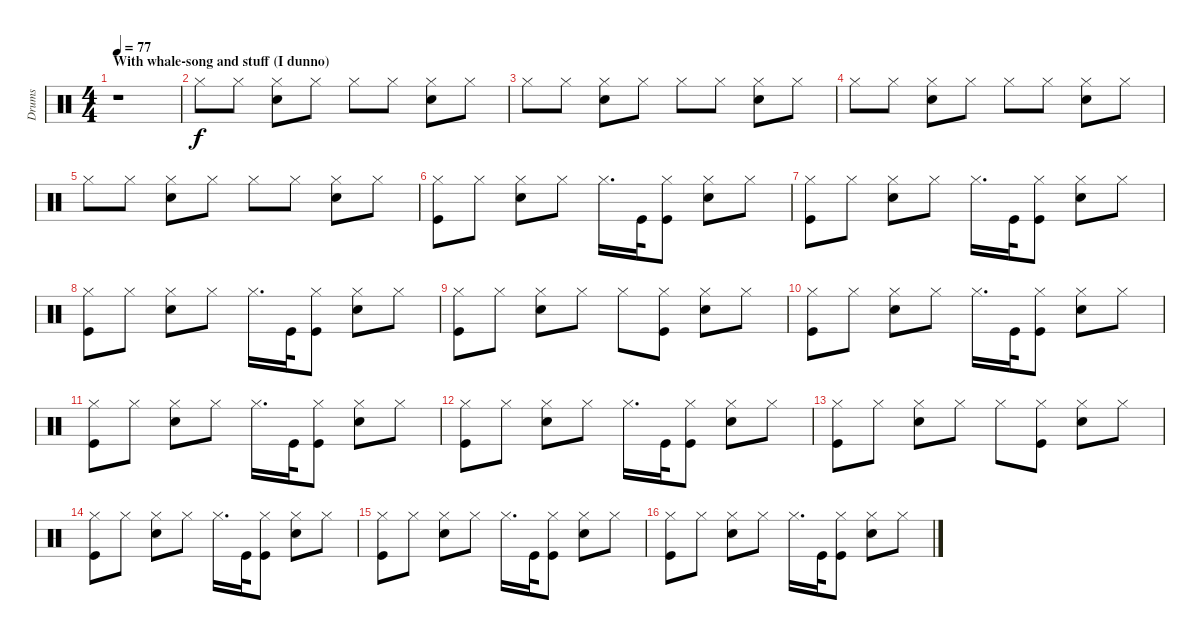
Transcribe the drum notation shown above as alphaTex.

\track ("Drums" "Drums") {instrument percussion}
\staff {score}
\articulation defaults
\ts (4 4)
\section ("" "With whale-song and stuff (I dunno)")
\tempo 77
\clef neutral
\ks c
r.1{dy f} |
"Hi-Hat (closed)".8 "Hi-Hat (closed)".8 ("Hi-Hat (closed)" "Snare (hit) 2").8 "Hi-Hat (closed)".8 "Hi-Hat (closed)".8 "Hi-Hat (closed)".8 ("Hi-Hat (closed)" "Snare (hit) 2").8 "Hi-Hat (closed)".8 |
"Hi-Hat (closed)".8 "Hi-Hat (closed)".8 ("Hi-Hat (closed)" "Snare (hit) 2").8 "Hi-Hat (closed)".8 "Hi-Hat (closed)".8 "Hi-Hat (closed)".8 ("Hi-Hat (closed)" "Snare (hit) 2").8 "Hi-Hat (closed)".8 |
"Hi-Hat (closed)".8 "Hi-Hat (closed)".8 ("Hi-Hat (closed)" "Snare (hit) 2").8 "Hi-Hat (closed)".8 "Hi-Hat (closed)".8 "Hi-Hat (closed)".8 ("Hi-Hat (closed)" "Snare (hit) 2").8 "Hi-Hat (closed)".8 |
"Hi-Hat (closed)".8 "Hi-Hat (closed)".8 ("Hi-Hat (closed)" "Snare (hit) 2").8 "Hi-Hat (closed)".8 "Hi-Hat (closed)".8 "Hi-Hat (closed)".8 ("Hi-Hat (closed)" "Snare (hit) 2").8 "Hi-Hat (closed)".8 |
("Hi-Hat (closed)" "Kick (hit)").8 "Hi-Hat (closed)".8 ("Hi-Hat (closed)" "Snare (hit) 2").8 "Hi-Hat (closed)".8 "Hi-Hat (closed)".16{d} "Kick (hit)".32 ("Hi-Hat (closed)" "Kick (hit)").8 ("Hi-Hat (closed)" "Snare (hit) 2").8 "Hi-Hat (closed)".8 |
("Hi-Hat (closed)" "Kick (hit)").8 "Hi-Hat (closed)".8 ("Hi-Hat (closed)" "Snare (hit) 2").8 "Hi-Hat (closed)".8 "Hi-Hat (closed)".16{d} "Kick (hit)".32 ("Hi-Hat (closed)" "Kick (hit)").8 ("Hi-Hat (closed)" "Snare (hit) 2").8 "Hi-Hat (closed)".8 |
("Hi-Hat (closed)" "Kick (hit)").8 "Hi-Hat (closed)".8 ("Hi-Hat (closed)" "Snare (hit) 2").8 "Hi-Hat (closed)".8 "Hi-Hat (closed)".16{d} "Kick (hit)".32 ("Hi-Hat (closed)" "Kick (hit)").8 ("Hi-Hat (closed)" "Snare (hit) 2").8 "Hi-Hat (closed)".8 |
("Hi-Hat (closed)" "Kick (hit)").8 "Hi-Hat (closed)".8 ("Hi-Hat (closed)" "Snare (hit) 2").8 "Hi-Hat (closed)".8 "Hi-Hat (closed)".8 ("Hi-Hat (closed)" "Kick (hit)").8 ("Hi-Hat (closed)" "Snare (hit) 2").8 "Hi-Hat (closed)".8 |
("Hi-Hat (closed)" "Kick (hit)").8 "Hi-Hat (closed)".8 ("Hi-Hat (closed)" "Snare (hit) 2").8 "Hi-Hat (closed)".8 "Hi-Hat (closed)".16{d} "Kick (hit)".32 ("Hi-Hat (closed)" "Kick (hit)").8 ("Hi-Hat (closed)" "Snare (hit) 2").8 "Hi-Hat (closed)".8 |
("Hi-Hat (closed)" "Kick (hit)").8 "Hi-Hat (closed)".8 ("Hi-Hat (closed)" "Snare (hit) 2").8 "Hi-Hat (closed)".8 "Hi-Hat (closed)".16{d} "Kick (hit)".32 ("Hi-Hat (closed)" "Kick (hit)").8 ("Hi-Hat (closed)" "Snare (hit) 2").8 "Hi-Hat (closed)".8 |
("Hi-Hat (closed)" "Kick (hit)").8 "Hi-Hat (closed)".8 ("Hi-Hat (closed)" "Snare (hit) 2").8 "Hi-Hat (closed)".8 "Hi-Hat (closed)".16{d} "Kick (hit)".32 ("Hi-Hat (closed)" "Kick (hit)").8 ("Hi-Hat (closed)" "Snare (hit) 2").8 "Hi-Hat (closed)".8 |
("Hi-Hat (closed)" "Kick (hit)").8 "Hi-Hat (closed)".8 ("Hi-Hat (closed)" "Snare (hit) 2").8 "Hi-Hat (closed)".8 "Hi-Hat (closed)".8 ("Hi-Hat (closed)" "Kick (hit)").8 ("Hi-Hat (closed)" "Snare (hit) 2").8 "Hi-Hat (closed)".8 |
("Hi-Hat (closed)" "Kick (hit)").8 "Hi-Hat (closed)".8 ("Hi-Hat (closed)" "Snare (hit) 2").8 "Hi-Hat (closed)".8 "Hi-Hat (closed)".16{d} "Kick (hit)".32 ("Hi-Hat (closed)" "Kick (hit)").8 ("Hi-Hat (closed)" "Snare (hit) 2").8 "Hi-Hat (closed)".8 |
("Hi-Hat (closed)" "Kick (hit)").8 "Hi-Hat (closed)".8 ("Hi-Hat (closed)" "Snare (hit) 2").8 "Hi-Hat (closed)".8 "Hi-Hat (closed)".16{d} "Kick (hit)".32 ("Hi-Hat (closed)" "Kick (hit)").8 ("Hi-Hat (closed)" "Snare (hit) 2").8 "Hi-Hat (closed)".8 |
("Hi-Hat (closed)" "Kick (hit)").8 "Hi-Hat (closed)".8 ("Hi-Hat (closed)" "Snare (hit) 2").8 "Hi-Hat (closed)".8 "Hi-Hat (closed)".16{d} "Kick (hit)".32 ("Hi-Hat (closed)" "Kick (hit)").8 ("Hi-Hat (closed)" "Snare (hit) 2").8 "Hi-Hat (closed)".8
